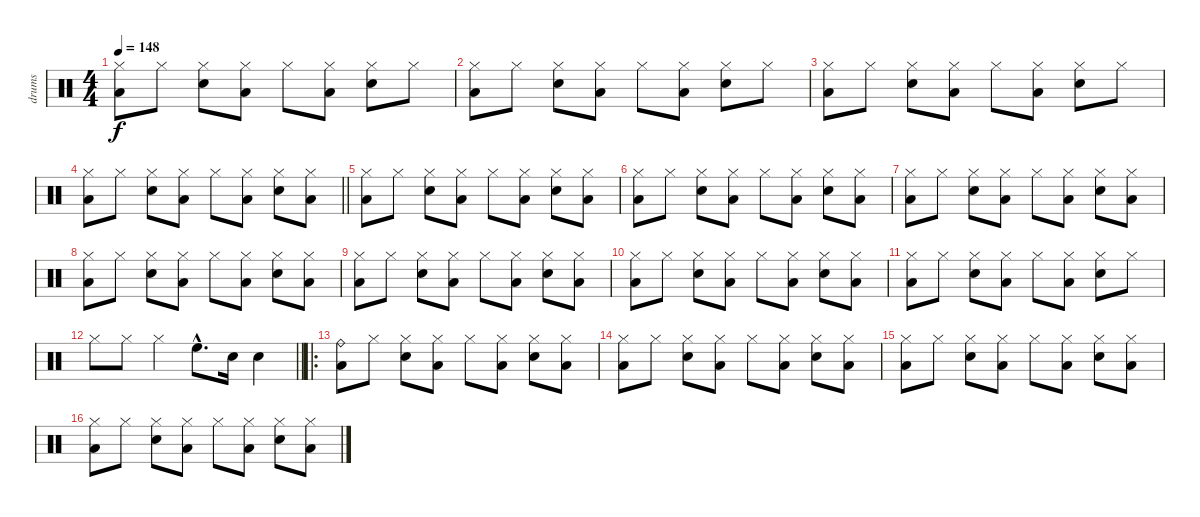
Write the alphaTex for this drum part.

\track ("drums" "drums") {instrument percussion}
\staff {score}
\articulation defaults
\ts (4 4)
\tempo 148
\clef neutral
\ks c
("Hi-Hat (closed)" "Low Floor Tom (hit)").8{dy f} "Hi-Hat (closed)".8 ("Hi-Hat (closed)" "Electric Snare (hit)").8 ("Hi-Hat (closed)" "Low Floor Tom (hit)").8 "Hi-Hat (closed)".8 ("Hi-Hat (closed)" "Low Floor Tom (hit)").8 ("Hi-Hat (closed)" "Electric Snare (hit)").8 "Hi-Hat (closed)".8 |
("Hi-Hat (closed)" "Low Floor Tom (hit)").8 "Hi-Hat (closed)".8 ("Hi-Hat (closed)" "Electric Snare (hit)").8 ("Hi-Hat (closed)" "Low Floor Tom (hit)").8 "Hi-Hat (closed)".8 ("Hi-Hat (closed)" "Low Floor Tom (hit)").8 ("Hi-Hat (closed)" "Electric Snare (hit)").8 "Hi-Hat (closed)".8 |
("Hi-Hat (closed)" "Low Floor Tom (hit)").8 "Hi-Hat (closed)".8 ("Hi-Hat (closed)" "Electric Snare (hit)").8 ("Hi-Hat (closed)" "Low Floor Tom (hit)").8 "Hi-Hat (closed)".8 ("Hi-Hat (closed)" "Low Floor Tom (hit)").8 ("Hi-Hat (closed)" "Electric Snare (hit)").8 "Hi-Hat (closed)".8 |
\barLineRight lightlight
("Hi-Hat (closed)" "Low Floor Tom (hit)").8 "Hi-Hat (closed)".8 ("Hi-Hat (closed)" "Electric Snare (hit)").8 ("Hi-Hat (closed)" "Low Floor Tom (hit)").8 "Hi-Hat (closed)".8 ("Hi-Hat (closed)" "Low Floor Tom (hit)").8 ("Hi-Hat (closed)" "Electric Snare (hit)").8 ("Hi-Hat (closed)" "Low Floor Tom (hit)").8 |
("Hi-Hat (closed)" "Low Floor Tom (hit)").8 "Hi-Hat (closed)".8 ("Hi-Hat (closed)" "Electric Snare (hit)").8 ("Hi-Hat (closed)" "Low Floor Tom (hit)").8 "Hi-Hat (closed)".8 ("Hi-Hat (closed)" "Low Floor Tom (hit)").8 ("Hi-Hat (closed)" "Electric Snare (hit)").8 ("Hi-Hat (closed)" "Low Floor Tom (hit)").8 |
("Hi-Hat (closed)" "Low Floor Tom (hit)").8 "Hi-Hat (closed)".8 ("Hi-Hat (closed)" "Electric Snare (hit)").8 ("Hi-Hat (closed)" "Low Floor Tom (hit)").8 "Hi-Hat (closed)".8 ("Hi-Hat (closed)" "Low Floor Tom (hit)").8 ("Hi-Hat (closed)" "Electric Snare (hit)").8 ("Hi-Hat (closed)" "Low Floor Tom (hit)").8 |
("Hi-Hat (closed)" "Low Floor Tom (hit)").8 "Hi-Hat (closed)".8 ("Hi-Hat (closed)" "Electric Snare (hit)").8 ("Hi-Hat (closed)" "Low Floor Tom (hit)").8 "Hi-Hat (closed)".8 ("Hi-Hat (closed)" "Low Floor Tom (hit)").8 ("Hi-Hat (closed)" "Electric Snare (hit)").8 ("Hi-Hat (closed)" "Low Floor Tom (hit)").8 |
("Hi-Hat (closed)" "Low Floor Tom (hit)").8 "Hi-Hat (closed)".8 ("Hi-Hat (closed)" "Electric Snare (hit)").8 ("Hi-Hat (closed)" "Low Floor Tom (hit)").8 "Hi-Hat (closed)".8 ("Hi-Hat (closed)" "Low Floor Tom (hit)").8 ("Hi-Hat (closed)" "Electric Snare (hit)").8 ("Hi-Hat (closed)" "Low Floor Tom (hit)").8 |
("Hi-Hat (closed)" "Low Floor Tom (hit)").8 "Hi-Hat (closed)".8 ("Hi-Hat (closed)" "Electric Snare (hit)").8 ("Hi-Hat (closed)" "Low Floor Tom (hit)").8 "Hi-Hat (closed)".8 ("Hi-Hat (closed)" "Low Floor Tom (hit)").8 ("Hi-Hat (closed)" "Electric Snare (hit)").8 ("Hi-Hat (closed)" "Low Floor Tom (hit)").8 |
("Hi-Hat (closed)" "Low Floor Tom (hit)").8 "Hi-Hat (closed)".8 ("Hi-Hat (closed)" "Electric Snare (hit)").8 ("Hi-Hat (closed)" "Low Floor Tom (hit)").8 "Hi-Hat (closed)".8 ("Hi-Hat (closed)" "Low Floor Tom (hit)").8 ("Hi-Hat (closed)" "Electric Snare (hit)").8 ("Hi-Hat (closed)" "Low Floor Tom (hit)").8 |
("Hi-Hat (closed)" "Low Floor Tom (hit)").8 "Hi-Hat (closed)".8 ("Hi-Hat (closed)" "Electric Snare (hit)").8 ("Hi-Hat (closed)" "Low Floor Tom (hit)").8 "Hi-Hat (closed)".8 ("Hi-Hat (closed)" "Low Floor Tom (hit)").8 ("Hi-Hat (closed)" "Electric Snare (hit)").8 "Hi-Hat (closed)".8 |
\barLineRight lightlight "Hi-Hat (closed)".8 "Hi-Hat (closed)".8 "Hi-Hat (closed)".4 "High Floor Tom (hit)"{hac}.8{d} "Electric Snare (hit)".16 "Electric Snare (hit)".4
|
\ro
("Ride (bell)" "Low Floor Tom (hit)").8 "Hi-Hat (closed)".8 ("Hi-Hat (closed)" "Electric Snare (hit)").8 ("Hi-Hat (closed)" "Low Floor Tom (hit)").8 "Hi-Hat (closed)".8 ("Hi-Hat (closed)" "Low Floor Tom (hit)").8 ("Hi-Hat (closed)" "Electric Snare (hit)").8 ("Hi-Hat (closed)" "Low Floor Tom (hit)").8 |
("Hi-Hat (closed)" "Low Floor Tom (hit)").8 "Hi-Hat (closed)".8 ("Hi-Hat (closed)" "Electric Snare (hit)").8 ("Hi-Hat (closed)" "Low Floor Tom (hit)").8 "Hi-Hat (closed)".8 ("Hi-Hat (closed)" "Low Floor Tom (hit)").8 ("Hi-Hat (closed)" "Electric Snare (hit)").8 ("Hi-Hat (closed)" "Low Floor Tom (hit)").8 |
("Hi-Hat (closed)" "Low Floor Tom (hit)").8 "Hi-Hat (closed)".8 ("Hi-Hat (closed)" "Electric Snare (hit)").8 ("Hi-Hat (closed)" "Low Floor Tom (hit)").8 "Hi-Hat (closed)".8 ("Hi-Hat (closed)" "Low Floor Tom (hit)").8 ("Hi-Hat (closed)" "Electric Snare (hit)").8 ("Hi-Hat (closed)" "Low Floor Tom (hit)").8 |
("Hi-Hat (closed)" "Low Floor Tom (hit)").8 "Hi-Hat (closed)".8 ("Hi-Hat (closed)" "Electric Snare (hit)").8 ("Hi-Hat (closed)" "Low Floor Tom (hit)").8 "Hi-Hat (closed)".8 ("Hi-Hat (closed)" "Low Floor Tom (hit)").8 ("Hi-Hat (closed)" "Electric Snare (hit)").8 ("Hi-Hat (closed)" "Low Floor Tom (hit)").8
